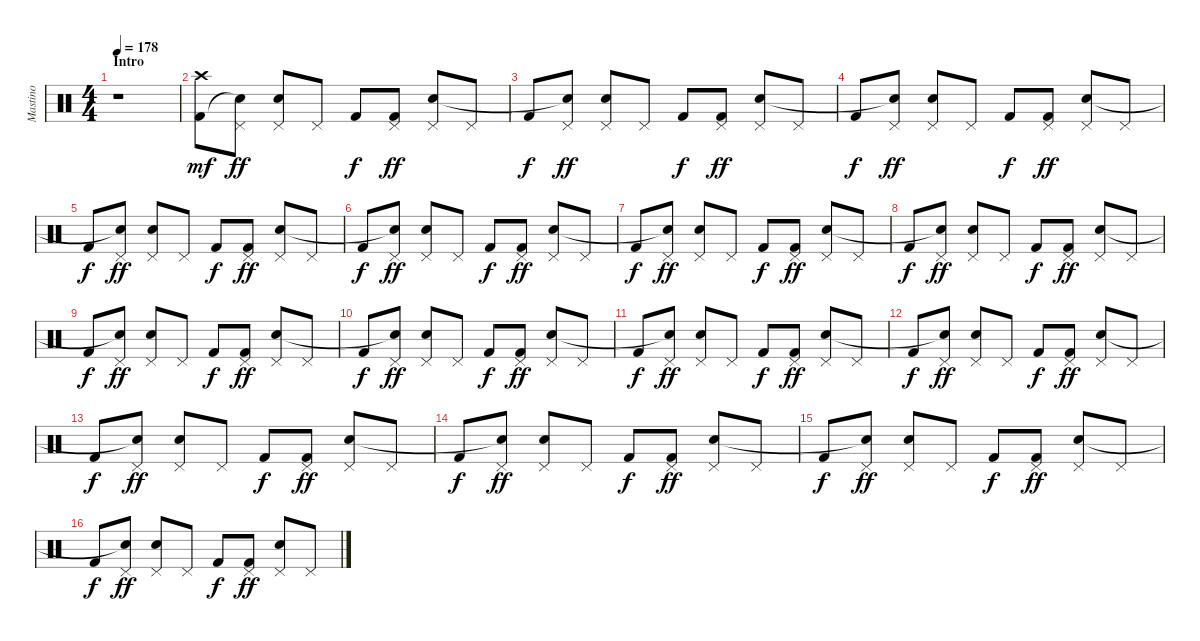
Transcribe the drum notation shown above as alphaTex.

\track ("Mastino" "Mastino") {instrument percussion}
\staff {score}
\articulation defaults
\ts (4 4)
\section ("" "Intro")
\tempo 178
\clef neutral
\ks c
r.1{dy mf} |
("Crash high (hit)" "Kick (hit) 2").8 ("Pedal Hi-Hat (hit)" "Snare (hit)"{t}).8{dy ff} ("Pedal Hi-Hat (hit)" "Electric Snare (hit)").8 "Pedal Hi-Hat (hit)".8 "Kick (hit) 2".8{dy f} ("Pedal Hi-Hat (hit)" "Kick (hit) 2").8{dy ff} ("Pedal Hi-Hat (hit)" "Electric Snare (hit)").8 "Pedal Hi-Hat (hit)".8 |
"Kick (hit) 2".8{dy f} ("Pedal Hi-Hat (hit)" "Snare (hit)"{t}).8{dy ff} ("Pedal Hi-Hat (hit)" "Electric Snare (hit)").8 "Pedal Hi-Hat (hit)".8 "Kick (hit) 2".8{dy f} ("Pedal Hi-Hat (hit)" "Kick (hit) 2").8{dy ff} ("Pedal Hi-Hat (hit)" "Electric Snare (hit)").8 "Pedal Hi-Hat (hit)".8 |
"Kick (hit) 2".8{dy f} ("Pedal Hi-Hat (hit)" "Snare (hit)"{t}).8{dy ff} ("Pedal Hi-Hat (hit)" "Electric Snare (hit)").8 "Pedal Hi-Hat (hit)".8 "Kick (hit) 2".8{dy f} ("Pedal Hi-Hat (hit)" "Kick (hit) 2").8{dy ff} ("Pedal Hi-Hat (hit)" "Electric Snare (hit)").8 "Pedal Hi-Hat (hit)".8 |
"Kick (hit) 2".8{dy f} ("Pedal Hi-Hat (hit)" "Snare (hit)"{t}).8{dy ff} ("Pedal Hi-Hat (hit)" "Electric Snare (hit)").8 "Pedal Hi-Hat (hit)".8 "Kick (hit) 2".8{dy f} ("Pedal Hi-Hat (hit)" "Kick (hit) 2").8{dy ff} ("Pedal Hi-Hat (hit)" "Electric Snare (hit)").8 "Pedal Hi-Hat (hit)".8 |
"Kick (hit) 2".8{dy f} ("Pedal Hi-Hat (hit)" "Snare (hit)"{t}).8{dy ff} ("Pedal Hi-Hat (hit)" "Electric Snare (hit)").8 "Pedal Hi-Hat (hit)".8 "Kick (hit) 2".8{dy f} ("Pedal Hi-Hat (hit)" "Kick (hit) 2").8{dy ff} ("Pedal Hi-Hat (hit)" "Electric Snare (hit)").8 "Pedal Hi-Hat (hit)".8 |
"Kick (hit) 2".8{dy f} ("Pedal Hi-Hat (hit)" "Snare (hit)"{t}).8{dy ff} ("Pedal Hi-Hat (hit)" "Electric Snare (hit)").8 "Pedal Hi-Hat (hit)".8 "Kick (hit) 2".8{dy f} ("Pedal Hi-Hat (hit)" "Kick (hit) 2").8{dy ff} ("Pedal Hi-Hat (hit)" "Electric Snare (hit)").8 "Pedal Hi-Hat (hit)".8 |
"Kick (hit) 2".8{dy f} ("Pedal Hi-Hat (hit)" "Snare (hit)"{t}).8{dy ff} ("Pedal Hi-Hat (hit)" "Electric Snare (hit)").8 "Pedal Hi-Hat (hit)".8 "Kick (hit) 2".8{dy f} ("Pedal Hi-Hat (hit)" "Kick (hit) 2").8{dy ff} ("Pedal Hi-Hat (hit)" "Electric Snare (hit)").8 "Pedal Hi-Hat (hit)".8 |
"Kick (hit) 2".8{dy f} ("Pedal Hi-Hat (hit)" "Snare (hit)"{t}).8{dy ff} ("Pedal Hi-Hat (hit)" "Electric Snare (hit)").8 "Pedal Hi-Hat (hit)".8 "Kick (hit) 2".8{dy f} ("Pedal Hi-Hat (hit)" "Kick (hit) 2").8{dy ff} ("Pedal Hi-Hat (hit)" "Electric Snare (hit)").8 "Pedal Hi-Hat (hit)".8 |
"Kick (hit) 2".8{dy f} ("Pedal Hi-Hat (hit)" "Snare (hit)"{t}).8{dy ff} ("Pedal Hi-Hat (hit)" "Electric Snare (hit)").8 "Pedal Hi-Hat (hit)".8 "Kick (hit) 2".8{dy f} ("Pedal Hi-Hat (hit)" "Kick (hit) 2").8{dy ff} ("Pedal Hi-Hat (hit)" "Electric Snare (hit)").8 "Pedal Hi-Hat (hit)".8 |
"Kick (hit) 2".8{dy f} ("Pedal Hi-Hat (hit)" "Snare (hit)"{t}).8{dy ff} ("Pedal Hi-Hat (hit)" "Electric Snare (hit)").8 "Pedal Hi-Hat (hit)".8 "Kick (hit) 2".8{dy f} ("Pedal Hi-Hat (hit)" "Kick (hit) 2").8{dy ff} ("Pedal Hi-Hat (hit)" "Electric Snare (hit)").8 "Pedal Hi-Hat (hit)".8 |
"Kick (hit) 2".8{dy f} ("Pedal Hi-Hat (hit)" "Snare (hit)"{t}).8{dy ff} ("Pedal Hi-Hat (hit)" "Electric Snare (hit)").8 "Pedal Hi-Hat (hit)".8 "Kick (hit) 2".8{dy f} ("Pedal Hi-Hat (hit)" "Kick (hit) 2").8{dy ff} ("Pedal Hi-Hat (hit)" "Electric Snare (hit)").8 "Pedal Hi-Hat (hit)".8 |
"Kick (hit) 2".8{dy f} ("Pedal Hi-Hat (hit)" "Snare (hit)"{t}).8{dy ff} ("Pedal Hi-Hat (hit)" "Electric Snare (hit)").8 "Pedal Hi-Hat (hit)".8 "Kick (hit) 2".8{dy f} ("Pedal Hi-Hat (hit)" "Kick (hit) 2").8{dy ff} ("Pedal Hi-Hat (hit)" "Electric Snare (hit)").8 "Pedal Hi-Hat (hit)".8 |
"Kick (hit) 2".8{dy f} ("Pedal Hi-Hat (hit)" "Snare (hit)"{t}).8{dy ff} ("Pedal Hi-Hat (hit)" "Electric Snare (hit)").8 "Pedal Hi-Hat (hit)".8 "Kick (hit) 2".8{dy f} ("Pedal Hi-Hat (hit)" "Kick (hit) 2").8{dy ff} ("Pedal Hi-Hat (hit)" "Electric Snare (hit)").8 "Pedal Hi-Hat (hit)".8 |
"Kick (hit) 2".8{dy f} ("Pedal Hi-Hat (hit)" "Snare (hit)"{t}).8{dy ff} ("Pedal Hi-Hat (hit)" "Electric Snare (hit)").8 "Pedal Hi-Hat (hit)".8 "Kick (hit) 2".8{dy f} ("Pedal Hi-Hat (hit)" "Kick (hit) 2").8{dy ff} ("Pedal Hi-Hat (hit)" "Electric Snare (hit)").8 "Pedal Hi-Hat (hit)".8 |
"Kick (hit) 2".8{dy f} ("Pedal Hi-Hat (hit)" "Snare (hit)"{t}).8{dy ff} ("Pedal Hi-Hat (hit)" "Electric Snare (hit)").8 "Pedal Hi-Hat (hit)".8 "Kick (hit) 2".8{dy f} ("Pedal Hi-Hat (hit)" "Kick (hit) 2").8{dy ff} ("Pedal Hi-Hat (hit)" "Electric Snare (hit)").8 "Pedal Hi-Hat (hit)".8
